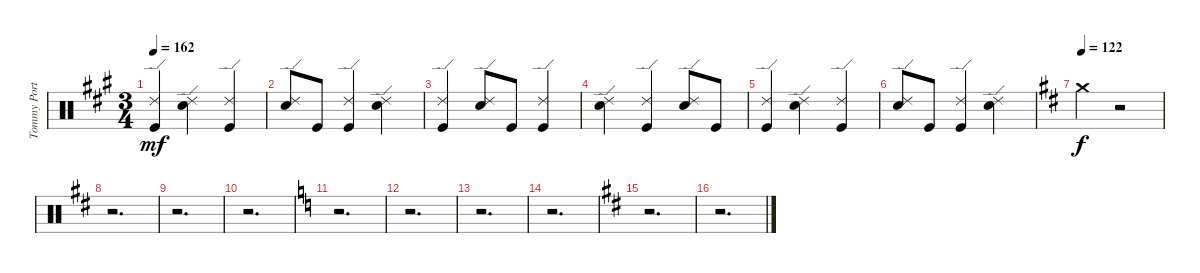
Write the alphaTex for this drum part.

\track ("Tommy Portimo (Drums)" "Tommy Port") {instrument percussion}
\staff {score}
\articulation defaults
\ts (3 4)
\tempo 162
\clef neutral
\ks a
("Kick (hit)" "Ride (edge) 2").4{dy mf} ("Electric Snare (hit)" "Ride (edge) 2").4 ("Kick (hit)" "Ride (edge) 2").4 |
("Electric Snare (hit)" "Ride (edge) 2").8 "Kick (hit)".8 ("Kick (hit)" "Ride (edge) 2").4 ("Electric Snare (hit)" "Ride (edge) 2").4 |
("Kick (hit)" "Ride (edge) 2").4 ("Electric Snare (hit)" "Ride (edge) 2").8 "Kick (hit)".8 ("Kick (hit)" "Ride (edge) 2").4 |
("Electric Snare (hit)" "Ride (edge) 2").4 ("Kick (hit)" "Ride (edge) 2").4 ("Electric Snare (hit)" "Ride (edge) 2").8 "Kick (hit)".8 |
("Kick (hit)" "Ride (edge) 2").4 ("Electric Snare (hit)" "Ride (edge) 2").4 ("Kick (hit)" "Ride (edge) 2").4 |
("Electric Snare (hit)" "Ride (edge) 2").8 "Kick (hit)".8 ("Kick (hit)" "Ride (edge) 2").4 ("Electric Snare (hit)" "Ride (edge) 2").4 |
\tempo 122
\ks d "Crash medium (hit)".4{dy f}
r.2 |
r.2{d} |
r.2{d} |
r.2{d} |
\ks c
r.2{d} |
r.2{d} |
r.2{d} |
r.2{d} |
\ks d
r.2{d} |
r.2{d}
